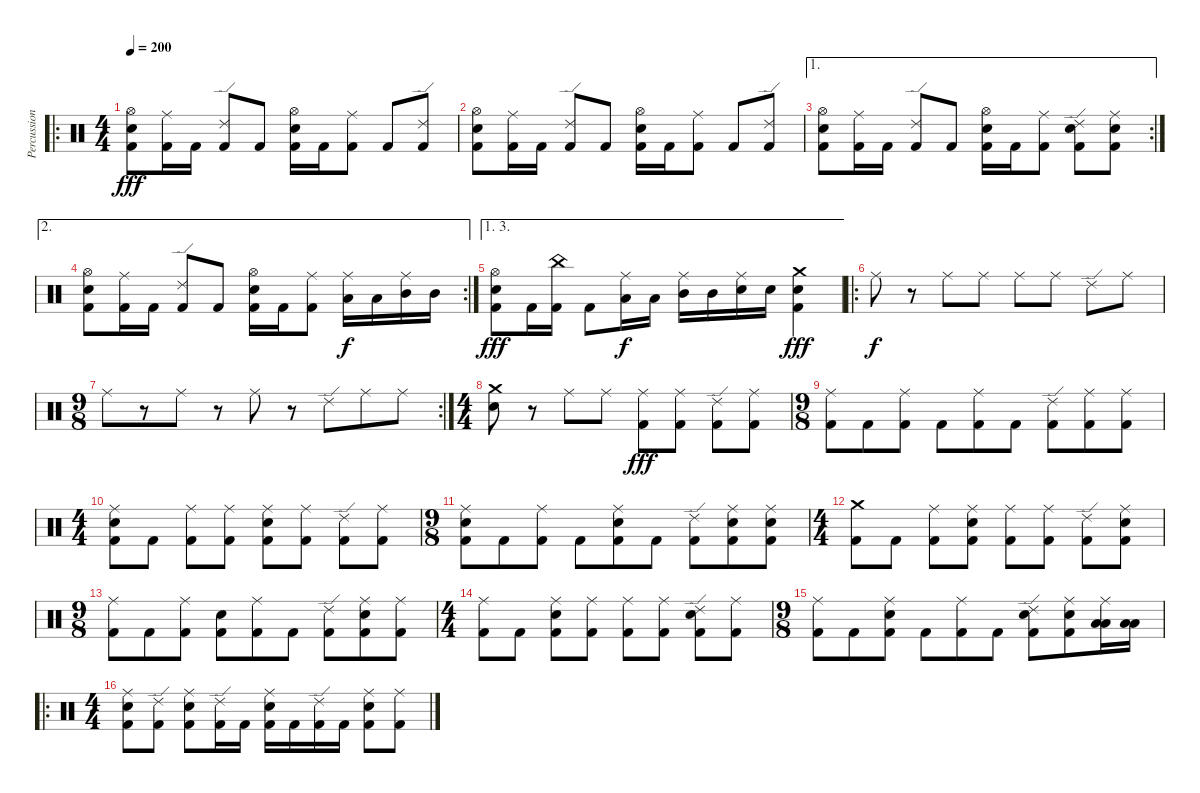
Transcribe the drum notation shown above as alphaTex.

\track ("Percussion" "Percussion") {instrument percussion}
\staff {score}
\articulation defaults
\ro
\ts (4 4)
\tempo 200
\clef neutral
\ks c
("Hi-Hat (open)" "Electric Snare (hit)" "Kick (hit) 2").8{dy fff} ("Ride (middle)" "Kick (hit) 2").16 "Kick (hit) 2".16 ("Ride (edge) 2" "Kick (hit) 2").8 "Kick (hit) 2".8 ("Hi-Hat (open)" "Electric Snare (hit)" "Kick (hit) 2").16 "Kick (hit) 2".16 ("Ride (middle)" "Kick (hit) 2").8 "Kick (hit) 2".8 ("Ride (edge) 2" "Kick (hit) 2").8 |
("Hi-Hat (open)" "Electric Snare (hit)" "Kick (hit) 2").8 ("Ride (middle)" "Kick (hit) 2").16 "Kick (hit) 2".16 ("Ride (edge) 2" "Kick (hit) 2").8 "Kick (hit) 2".8 ("Hi-Hat (open)" "Electric Snare (hit)" "Kick (hit) 2").16 "Kick (hit) 2".16 ("Ride (middle)" "Kick (hit) 2").8 "Kick (hit) 2".8 ("Ride (edge) 2" "Kick (hit) 2").8 |
\ae 1
\rc 2
("Hi-Hat (open)" "Electric Snare (hit)" "Kick (hit) 2").8 ("Ride (middle)" "Kick (hit) 2").16 "Kick (hit) 2".16 ("Ride (edge) 2" "Kick (hit) 2").8 "Kick (hit) 2".8 ("Hi-Hat (open)" "Electric Snare (hit)" "Kick (hit) 2").16 "Kick (hit) 2".16 ("Ride (middle)" "Kick (hit) 2").8 ("Ride (edge) 2" "Electric Snare (hit)" "Kick (hit) 2").8 ("Ride (middle)" "Electric Snare (hit)" "Kick (hit) 2").8 |
\ae 2
\rc 2
("Hi-Hat (open)" "Electric Snare (hit)" "Kick (hit) 2").8 ("Ride (middle)" "Kick (hit) 2").16 "Kick (hit) 2".16 ("Ride (edge) 2" "Kick (hit) 2").8 "Kick (hit) 2".8 ("Hi-Hat (open)" "Electric Snare (hit)" "Kick (hit) 2").16 "Kick (hit) 2".16 ("Ride (middle)" "Kick (hit) 2").8 ("Ride (middle)" "Low Tom (hit)").16{dy f} "Low Tom (hit)".16 ("Ride (middle)" "Mid Tom (hit)").16 "Mid Tom (hit)".16 |
\ae (1 3)
("Hi-Hat (open)" "Electric Snare (hit)" "Kick (hit) 2").8{dy fff} "Kick (hit) 2".16 ("China (hit)" "Kick (hit) 2").16 "Kick (hit) 2".8 ("Ride (middle)" "Low Tom (hit)").16{dy f} "Low Tom (hit)".16 ("Ride (middle)" "Mid Tom (hit)").16 "Mid Tom (hit)".16 ("Ride (middle)" "Electric Snare (hit)").16 "Electric Snare (hit)".16 ("Crash medium (hit)" "Electric Snare (hit)" "Kick (hit) 2").4{dy fff} |
\ro "Ride (middle)".8{dy f}
r.8 "Ride (middle)".8 "Ride (middle)".8 "Ride (middle)".8 "Ride (middle)".8 "Ride (edge) 2".8 "Ride (middle)".8 |
\rc 2
\ts (9 8)
"Ride (middle)".8 r.8 "Ride (middle)".8 r.8 "Ride (middle)".8 r.8 "Ride (edge) 2".8 "Ride (middle)".8 "Ride (middle)".8 |
\ts (4 4)
("Crash medium (hit)" "Electric Snare (hit)").8 r.8 "Ride (middle)".8 "Ride (middle)".8 ("Ride (middle)" "Kick (hit) 2").8{dy fff} ("Ride (middle)" "Kick (hit) 2").8 ("Ride (edge) 2" "Kick (hit) 2").8 ("Ride (middle)" "Kick (hit) 2").8 |
\ts (9 8)
("Ride (middle)" "Kick (hit) 2").8 "Kick (hit) 2".8 ("Ride (middle)" "Kick (hit) 2").8 "Kick (hit) 2".8 ("Ride (middle)" "Kick (hit) 2").8 "Kick (hit) 2".8 ("Ride (edge) 2" "Kick (hit) 2").8 ("Ride (middle)" "Kick (hit) 2").8 ("Ride (middle)" "Kick (hit) 2").8 |
\ts (4 4)
("Ride (middle)" "Electric Snare (hit)" "Kick (hit) 2").8 "Kick (hit) 2".8 ("Ride (middle)" "Kick (hit) 2").8 ("Ride (middle)" "Kick (hit) 2").8 ("Ride (middle)" "Electric Snare (hit)" "Kick (hit) 2").8 ("Ride (middle)" "Kick (hit) 2").8 ("Ride (edge) 2" "Kick (hit) 2").8 ("Ride (middle)" "Kick (hit) 2").8 |
\ts (9 8)
("Ride (middle)" "Electric Snare (hit)" "Kick (hit) 2").8 "Kick (hit) 2".8 ("Ride (middle)" "Kick (hit) 2").8 "Kick (hit) 2".8 ("Ride (middle)" "Electric Snare (hit)" "Kick (hit) 2").8 "Kick (hit) 2".8 ("Ride (edge) 2" "Kick (hit) 2").8 ("Ride (middle)" "Electric Snare (hit)" "Kick (hit) 2").8 ("Ride (middle)" "Electric Snare (hit)" "Kick (hit) 2").8 |
\ts (4 4)
("Crash medium (hit)" "Kick (hit) 2").8 "Kick (hit) 2".8 ("Ride (middle)" "Kick (hit) 2").8 ("Ride (middle)" "Electric Snare (hit)" "Kick (hit) 2").8 ("Ride (middle)" "Kick (hit) 2").8 ("Ride (middle)" "Kick (hit) 2").8 ("Ride (edge) 2" "Kick (hit) 2").8 ("Ride (middle)" "Electric Snare (hit)" "Kick (hit) 2").8 |
\ts (9 8)
("Ride (middle)" "Kick (hit) 2").8 "Kick (hit) 2".8 ("Ride (middle)" "Kick (hit) 2").8 ("Electric Snare (hit)" "Kick (hit) 2").8 ("Ride (middle)" "Kick (hit) 2").8 "Kick (hit) 2".8 ("Ride (edge) 2" "Kick (hit) 2").8 ("Ride (middle)" "Electric Snare (hit)" "Kick (hit) 2").8 ("Ride (middle)" "Kick (hit) 2").8 |
\ts (4 4)
("Ride (middle)" "Kick (hit) 2").8 "Kick (hit) 2".8 ("Ride (middle)" "Electric Snare (hit)" "Kick (hit) 2").8 ("Ride (middle)" "Kick (hit) 2").8 ("Ride (middle)" "Kick (hit) 2").8 ("Ride (middle)" "Kick (hit) 2").8 ("Ride (edge) 2" "Electric Snare (hit)" "Kick (hit) 2").8 ("Ride (middle)" "Kick (hit) 2").8 |
\ts (9 8)
("Ride (middle)" "Kick (hit) 2").8 "Kick (hit) 2".8 ("Ride (middle)" "Electric Snare (hit)" "Kick (hit) 2").8 "Kick (hit) 2".8 ("Ride (middle)" "Kick (hit) 2").8 "Kick (hit) 2".8 ("Ride (edge) 2" "Electric Snare (hit)" "Kick (hit) 2").8 ("Ride (middle)" "Electric Snare (hit)" "Kick (hit) 2").8 ("Ride (middle)" "Low Tom (hit)" "Low Tom (hit)").16 ("Low Tom (hit)" "Low Tom (hit)").16 |
\ro
\ts (4 4)
("Ride (middle)" "Electric Snare (hit)" "Kick (hit) 2").8 ("Ride (edge) 2" "Kick (hit) 2").8 ("Ride (middle)" "Electric Snare (hit)" "Kick (hit) 2").8 ("Ride (edge) 2" "Kick (hit) 2").16 "Kick (hit) 2".16 ("Ride (middle)" "Electric Snare (hit)" "Kick (hit) 2").16 "Kick (hit) 2".16 ("Ride (edge) 2" "Kick (hit) 2").16 "Kick (hit) 2".16 ("Ride (middle)" "Electric Snare (hit)" "Kick (hit) 2").8 ("Ride (middle)" "Kick (hit) 2").8
